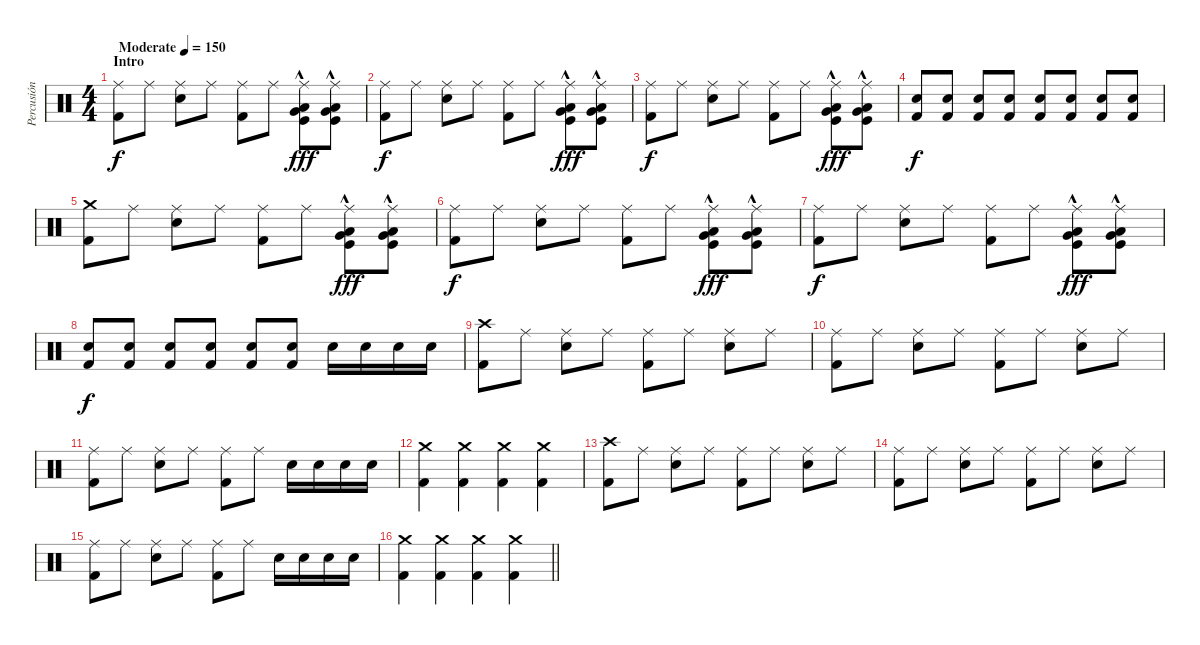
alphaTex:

\track ("Percusión" "Percusión") {instrument percussion}
\staff {score}
\articulation defaults
\ts (4 4)
\section ("" "Intro")
\tempo (150 "Moderate")
\clef neutral
\ks c
("Ride (middle)" "Kick (hit) 2").8{dy f} "Ride (middle)".8 ("Ride (middle)" "Snare (hit) 2").8 "Ride (middle)".8 ("Ride (middle)" "Kick (hit) 2").8 "Ride (middle)".8 ("Ride (middle)" "Very Low Tom (hit)"{hac} "Kick (hit)" "Low Floor Tom (hit)").8{dy fff} ("Ride (middle)" "Very Low Tom (hit)"{hac} "Kick (hit)" "Low Floor Tom (hit)").8 |
("Ride (middle)" "Kick (hit) 2").8{dy f} "Ride (middle)".8 ("Ride (middle)" "Snare (hit) 2").8 "Ride (middle)".8 ("Ride (middle)" "Kick (hit) 2").8 "Ride (middle)".8 ("Ride (middle)" "Very Low Tom (hit)"{hac} "Kick (hit)" "Low Floor Tom (hit)").8{dy fff} ("Ride (middle)" "Very Low Tom (hit)"{hac} "Kick (hit)" "Low Floor Tom (hit)").8 |
("Ride (middle)" "Kick (hit) 2").8{dy f} "Ride (middle)".8 ("Ride (middle)" "Snare (hit) 2").8 "Ride (middle)".8 ("Ride (middle)" "Kick (hit) 2").8 "Ride (middle)".8 ("Ride (middle)" "Very Low Tom (hit)"{hac} "Kick (hit)" "Low Floor Tom (hit)").8{dy fff} ("Ride (middle)" "Very Low Tom (hit)"{hac} "Kick (hit)" "Low Floor Tom (hit)").8 |
("Kick (hit) 2" "Snare (hit) 2").8{dy f} ("Kick (hit) 2" "Snare (hit) 2").8 ("Kick (hit) 2" "Snare (hit) 2").8 ("Kick (hit) 2" "Snare (hit) 2").8 ("Kick (hit) 2" "Snare (hit) 2").8 ("Kick (hit) 2" "Snare (hit) 2").8 ("Kick (hit) 2" "Snare (hit) 2").8 ("Kick (hit) 2" "Snare (hit) 2").8 |
("Crash medium (hit)" "Kick (hit) 2").8 "Ride (middle)".8 ("Ride (middle)" "Snare (hit) 2").8 "Ride (middle)".8 ("Ride (middle)" "Kick (hit) 2").8 "Ride (middle)".8 ("Ride (middle)" "Very Low Tom (hit)"{hac} "Kick (hit)" "Low Floor Tom (hit)").8{dy fff} ("Ride (middle)" "Very Low Tom (hit)"{hac} "Kick (hit)" "Low Floor Tom (hit)").8 |
("Ride (middle)" "Kick (hit) 2").8{dy f} "Ride (middle)".8 ("Ride (middle)" "Snare (hit) 2").8 "Ride (middle)".8 ("Ride (middle)" "Kick (hit) 2").8 "Ride (middle)".8 ("Ride (middle)" "Very Low Tom (hit)"{hac} "Kick (hit)" "Low Floor Tom (hit)").8{dy fff} ("Ride (middle)" "Very Low Tom (hit)"{hac} "Kick (hit)" "Low Floor Tom (hit)").8 |
("Ride (middle)" "Kick (hit) 2").8{dy f} "Ride (middle)".8 ("Ride (middle)" "Snare (hit) 2").8 "Ride (middle)".8 ("Ride (middle)" "Kick (hit) 2").8 "Ride (middle)".8 ("Ride (middle)" "Very Low Tom (hit)"{hac} "Kick (hit)" "Low Floor Tom (hit)").8{dy fff} ("Ride (middle)" "Very Low Tom (hit)"{hac} "Kick (hit)" "Low Floor Tom (hit)").8 |
("Kick (hit) 2" "Snare (hit) 2").8{dy f} ("Kick (hit) 2" "Snare (hit) 2").8 ("Kick (hit) 2" "Snare (hit) 2").8 ("Kick (hit) 2" "Snare (hit) 2").8 ("Kick (hit) 2" "Snare (hit) 2").8 ("Kick (hit) 2" "Snare (hit) 2").8 "Snare (hit) 2".16 "Snare (hit) 2".16 "Snare (hit) 2".16 "Snare (hit) 2".16 |
("Crash high (hit)" "Kick (hit) 2").8 "Ride (middle)".8 ("Ride (middle)" "Snare (hit) 2").8 "Ride (middle)".8 ("Ride (middle)" "Kick (hit) 2").8 "Ride (middle)".8 ("Ride (middle)" "Snare (hit) 2").8 "Ride (middle)".8 |
("Ride (middle)" "Kick (hit) 2").8 "Ride (middle)".8 ("Ride (middle)" "Snare (hit) 2").8 "Ride (middle)".8 ("Ride (middle)" "Kick (hit) 2").8 "Ride (middle)".8 ("Ride (middle)" "Snare (hit) 2").8 "Ride (middle)".8 |
("Ride (middle)" "Kick (hit) 2").8 "Ride (middle)".8 ("Ride (middle)" "Snare (hit) 2").8 "Ride (middle)".8 ("Ride (middle)" "Kick (hit) 2").8 "Ride (middle)".8 "Snare (hit) 2".16 "Snare (hit) 2".16 "Snare (hit) 2".16 "Snare (hit) 2".16 |
("Crash medium (hit)" "Kick (hit) 2").4 ("Crash medium (hit)" "Kick (hit) 2").4 ("Crash medium (hit)" "Kick (hit) 2").4 ("Crash medium (hit)" "Kick (hit) 2").4 |
("Crash high (hit)" "Kick (hit) 2").8 "Ride (middle)".8 ("Ride (middle)" "Snare (hit) 2").8 "Ride (middle)".8 ("Ride (middle)" "Kick (hit) 2").8 "Ride (middle)".8 ("Ride (middle)" "Snare (hit) 2").8 "Ride (middle)".8 |
("Ride (middle)" "Kick (hit) 2").8 "Ride (middle)".8 ("Ride (middle)" "Snare (hit) 2").8 "Ride (middle)".8 ("Ride (middle)" "Kick (hit) 2").8 "Ride (middle)".8 ("Ride (middle)" "Snare (hit) 2").8 "Ride (middle)".8 |
("Ride (middle)" "Kick (hit) 2").8 "Ride (middle)".8 ("Ride (middle)" "Snare (hit) 2").8 "Ride (middle)".8 ("Ride (middle)" "Kick (hit) 2").8 "Ride (middle)".8 "Snare (hit) 2".16 "Snare (hit) 2".16 "Snare (hit) 2".16 "Snare (hit) 2".16 |
\barLineRight lightlight
("Crash medium (hit)" "Kick (hit) 2").4 ("Crash medium (hit)" "Kick (hit) 2").4 ("Crash medium (hit)" "Kick (hit) 2").4 ("Crash medium (hit)" "Kick (hit) 2").4
